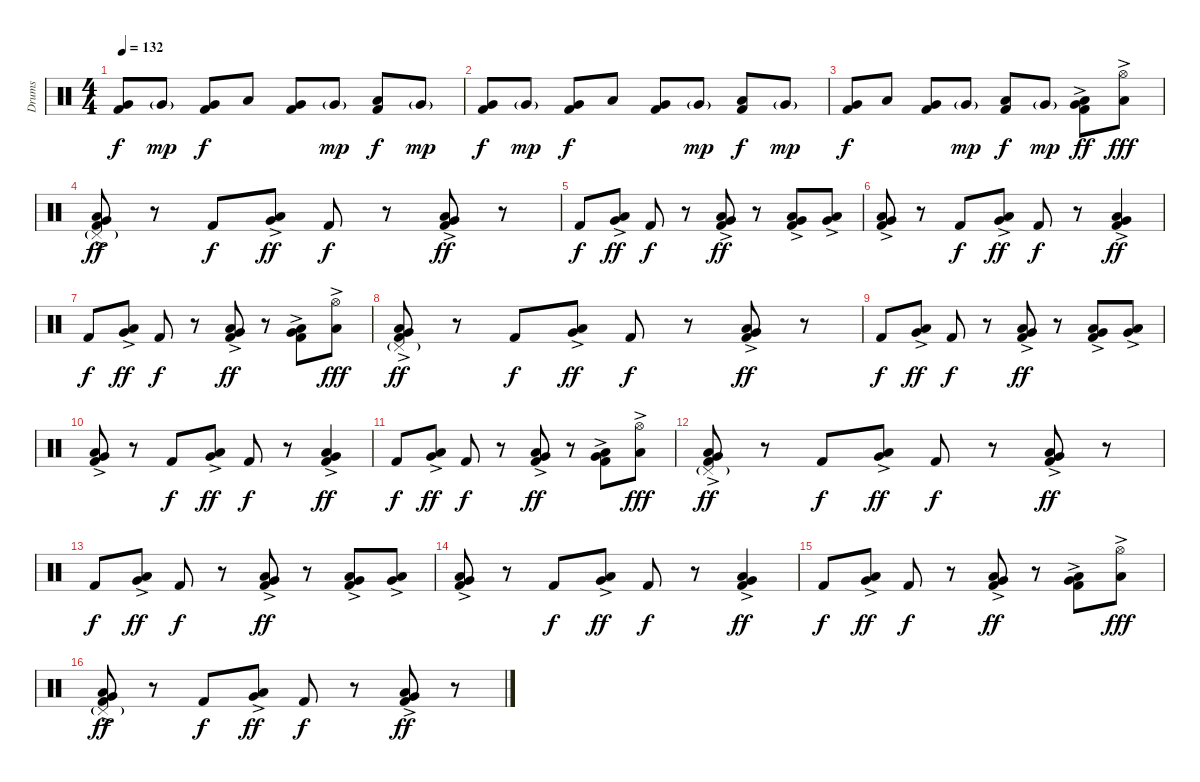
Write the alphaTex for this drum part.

\track ("Drums" "Drums") {instrument percussion}
\staff {score}
\articulation defaults
\ts (4 4)
\tempo 132
\clef neutral
\ks c
("Very Low Tom (hit)" "Kick (hit) 2").8{dy f} "Very Low Tom (hit)"{g}.8{dy mp} ("Very Low Tom (hit)" "Kick (hit) 2").8{dy f} "Low Tom (hit)".8 ("Very Low Tom (hit)" "Kick (hit) 2").8 "Very Low Tom (hit)"{g}.8{dy mp} ("Low Tom (hit)" "Kick (hit) 2").8{dy f} "Very Low Tom (hit)"{g}.8{dy mp} |
("Very Low Tom (hit)" "Kick (hit) 2").8{dy f} "Very Low Tom (hit)"{g}.8{dy mp} ("Very Low Tom (hit)" "Kick (hit) 2").8{dy f} "Low Tom (hit)".8 ("Very Low Tom (hit)" "Kick (hit) 2").8 "Very Low Tom (hit)"{g}.8{dy mp} ("Low Tom (hit)" "Kick (hit) 2").8{dy f} "Very Low Tom (hit)"{g}.8{dy mp} |
("Very Low Tom (hit)" "Kick (hit) 2").8{dy f} "Low Tom (hit)".8 ("Very Low Tom (hit)" "Kick (hit) 2").8 "Very Low Tom (hit)"{g}.8{dy mp} ("Low Tom (hit)" "Kick (hit) 2").8{dy f} "Very Low Tom (hit)"{g}.8{dy mp} ("Low Tom (hit)"{ac} "Very Low Tom (hit)" "Kick (hit) 2").8{dy ff} ("Hi-Hat (open)" "Low Tom (hit)"{ac}).8{dy fff} |
("Pedal Hi-Hat (hit)"{g} "Low Tom (hit)"{ac} "Very Low Tom (hit)" "Kick (hit) 2").8{dy ff} r.8 "Kick (hit) 2".8{dy f} ("Low Tom (hit)"{ac} "Very Low Tom (hit)").8{dy ff} "Kick (hit) 2".8{dy f} r.8 ("Low Tom (hit)"{ac} "Very Low Tom (hit)" "Kick (hit) 2").8{dy ff} r.8 |
"Kick (hit) 2".8{dy f} ("Low Tom (hit)"{ac} "Very Low Tom (hit)").8{dy ff} "Kick (hit) 2".8{dy f} r.8 ("Low Tom (hit)"{ac} "Very Low Tom (hit)" "Kick (hit) 2").8{dy ff} r.8 ("Low Tom (hit)"{ac} "Very Low Tom (hit)" "Kick (hit) 2").8 ("Low Tom (hit)"{ac} "Very Low Tom (hit)").8 |
("Low Tom (hit)"{ac} "Very Low Tom (hit)" "Kick (hit) 2").8 r.8 "Kick (hit) 2".8{dy f} ("Low Tom (hit)"{ac} "Very Low Tom (hit)").8{dy ff} "Kick (hit) 2".8{dy f} r.8 ("Low Tom (hit)"{ac} "Very Low Tom (hit)" "Kick (hit) 2").4{dy ff} |
"Kick (hit) 2".8{dy f} ("Low Tom (hit)"{ac} "Very Low Tom (hit)").8{dy ff} "Kick (hit) 2".8{dy f} r.8 ("Low Tom (hit)"{ac} "Very Low Tom (hit)" "Kick (hit) 2").8{dy ff} r.8 ("Low Tom (hit)"{ac} "Very Low Tom (hit)" "Kick (hit) 2").8 ("Hi-Hat (open)" "Low Tom (hit)"{ac}).8{dy fff} |
("Pedal Hi-Hat (hit)"{g} "Low Tom (hit)"{ac} "Very Low Tom (hit)" "Kick (hit) 2").8{dy ff} r.8 "Kick (hit) 2".8{dy f} ("Low Tom (hit)"{ac} "Very Low Tom (hit)").8{dy ff} "Kick (hit) 2".8{dy f} r.8 ("Low Tom (hit)"{ac} "Very Low Tom (hit)" "Kick (hit) 2").8{dy ff} r.8 |
"Kick (hit) 2".8{dy f} ("Low Tom (hit)"{ac} "Very Low Tom (hit)").8{dy ff} "Kick (hit) 2".8{dy f} r.8 ("Low Tom (hit)"{ac} "Very Low Tom (hit)" "Kick (hit) 2").8{dy ff} r.8 ("Low Tom (hit)"{ac} "Very Low Tom (hit)" "Kick (hit) 2").8 ("Low Tom (hit)"{ac} "Very Low Tom (hit)").8 |
("Low Tom (hit)"{ac} "Very Low Tom (hit)" "Kick (hit) 2").8 r.8 "Kick (hit) 2".8{dy f} ("Low Tom (hit)"{ac} "Very Low Tom (hit)").8{dy ff} "Kick (hit) 2".8{dy f} r.8 ("Low Tom (hit)"{ac} "Very Low Tom (hit)" "Kick (hit) 2").4{dy ff} |
"Kick (hit) 2".8{dy f} ("Low Tom (hit)"{ac} "Very Low Tom (hit)").8{dy ff} "Kick (hit) 2".8{dy f} r.8 ("Low Tom (hit)"{ac} "Very Low Tom (hit)" "Kick (hit) 2").8{dy ff} r.8 ("Low Tom (hit)"{ac} "Very Low Tom (hit)" "Kick (hit) 2").8 ("Hi-Hat (open)" "Low Tom (hit)"{ac}).8{dy fff} |
("Pedal Hi-Hat (hit)"{g} "Low Tom (hit)"{ac} "Very Low Tom (hit)" "Kick (hit) 2").8{dy ff} r.8 "Kick (hit) 2".8{dy f} ("Low Tom (hit)"{ac} "Very Low Tom (hit)").8{dy ff} "Kick (hit) 2".8{dy f} r.8 ("Low Tom (hit)"{ac} "Very Low Tom (hit)" "Kick (hit) 2").8{dy ff} r.8 |
"Kick (hit) 2".8{dy f} ("Low Tom (hit)"{ac} "Very Low Tom (hit)").8{dy ff} "Kick (hit) 2".8{dy f} r.8 ("Low Tom (hit)"{ac} "Very Low Tom (hit)" "Kick (hit) 2").8{dy ff} r.8 ("Low Tom (hit)"{ac} "Very Low Tom (hit)" "Kick (hit) 2").8 ("Low Tom (hit)"{ac} "Very Low Tom (hit)").8 |
("Low Tom (hit)"{ac} "Very Low Tom (hit)" "Kick (hit) 2").8 r.8 "Kick (hit) 2".8{dy f} ("Low Tom (hit)"{ac} "Very Low Tom (hit)").8{dy ff} "Kick (hit) 2".8{dy f} r.8 ("Low Tom (hit)"{ac} "Very Low Tom (hit)" "Kick (hit) 2").4{dy ff} |
"Kick (hit) 2".8{dy f} ("Low Tom (hit)"{ac} "Very Low Tom (hit)").8{dy ff} "Kick (hit) 2".8{dy f} r.8 ("Low Tom (hit)"{ac} "Very Low Tom (hit)" "Kick (hit) 2").8{dy ff} r.8 ("Low Tom (hit)"{ac} "Very Low Tom (hit)" "Kick (hit) 2").8 ("Hi-Hat (open)" "Low Tom (hit)"{ac}).8{dy fff} |
("Pedal Hi-Hat (hit)"{g} "Low Tom (hit)"{ac} "Very Low Tom (hit)" "Kick (hit) 2").8{dy ff} r.8 "Kick (hit) 2".8{dy f} ("Low Tom (hit)"{ac} "Very Low Tom (hit)").8{dy ff} "Kick (hit) 2".8{dy f} r.8 ("Low Tom (hit)"{ac} "Very Low Tom (hit)" "Kick (hit) 2").8{dy ff} r.8
